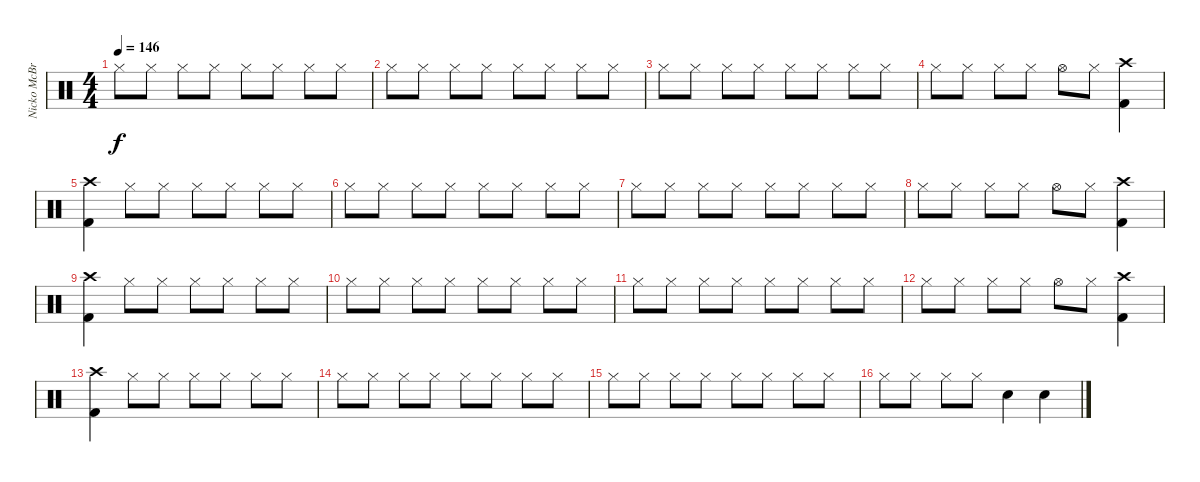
\track ("Nicko McBrain" "Nicko McBr") {instrument percussion}
\staff {score}
\articulation defaults
\ts (4 4)
\tempo 146
\clef neutral
\ks c "Hi-Hat (closed)".8{dy f} "Hi-Hat (closed)".8 "Hi-Hat (closed)".8 "Hi-Hat (closed)".8 "Hi-Hat (closed)".8 "Hi-Hat (closed)".8 "Hi-Hat (closed)".8 "Hi-Hat (closed)".8
|
"Hi-Hat (closed)".8 "Hi-Hat (closed)".8 "Hi-Hat (closed)".8 "Hi-Hat (closed)".8 "Hi-Hat (closed)".8 "Hi-Hat (closed)".8 "Hi-Hat (closed)".8 "Hi-Hat (closed)".8 |
"Hi-Hat (closed)".8 "Hi-Hat (closed)".8 "Hi-Hat (closed)".8 "Hi-Hat (closed)".8 "Hi-Hat (closed)".8 "Hi-Hat (closed)".8 "Hi-Hat (closed)".8 "Hi-Hat (closed)".8 |
"Hi-Hat (closed)".8 "Hi-Hat (closed)".8 "Hi-Hat (closed)".8 "Hi-Hat (closed)".8 "Hi-Hat (open)".8 "Hi-Hat (closed)".8 ("Crash high (hit)" "Kick (hit) 2").4 |
("Crash high (hit)" "Kick (hit) 2").4 "Hi-Hat (closed)".8 "Hi-Hat (closed)".8 "Hi-Hat (closed)".8 "Hi-Hat (closed)".8 "Hi-Hat (closed)".8 "Hi-Hat (closed)".8 |
"Hi-Hat (closed)".8 "Hi-Hat (closed)".8 "Hi-Hat (closed)".8 "Hi-Hat (closed)".8 "Hi-Hat (closed)".8 "Hi-Hat (closed)".8 "Hi-Hat (closed)".8 "Hi-Hat (closed)".8 |
"Hi-Hat (closed)".8 "Hi-Hat (closed)".8 "Hi-Hat (closed)".8 "Hi-Hat (closed)".8 "Hi-Hat (closed)".8 "Hi-Hat (closed)".8 "Hi-Hat (closed)".8 "Hi-Hat (closed)".8 |
"Hi-Hat (closed)".8 "Hi-Hat (closed)".8 "Hi-Hat (closed)".8 "Hi-Hat (closed)".8 "Hi-Hat (open)".8 "Hi-Hat (closed)".8 ("Crash high (hit)" "Kick (hit) 2").4 |
("Crash high (hit)" "Kick (hit) 2").4 "Hi-Hat (closed)".8 "Hi-Hat (closed)".8 "Hi-Hat (closed)".8 "Hi-Hat (closed)".8 "Hi-Hat (closed)".8 "Hi-Hat (closed)".8 |
"Hi-Hat (closed)".8 "Hi-Hat (closed)".8 "Hi-Hat (closed)".8 "Hi-Hat (closed)".8 "Hi-Hat (closed)".8 "Hi-Hat (closed)".8 "Hi-Hat (closed)".8 "Hi-Hat (closed)".8 |
"Hi-Hat (closed)".8 "Hi-Hat (closed)".8 "Hi-Hat (closed)".8 "Hi-Hat (closed)".8 "Hi-Hat (closed)".8 "Hi-Hat (closed)".8 "Hi-Hat (closed)".8 "Hi-Hat (closed)".8 |
"Hi-Hat (closed)".8 "Hi-Hat (closed)".8 "Hi-Hat (closed)".8 "Hi-Hat (closed)".8 "Hi-Hat (open)".8 "Hi-Hat (closed)".8 ("Crash high (hit)" "Kick (hit) 2").4 |
("Crash high (hit)" "Kick (hit) 2").4 "Hi-Hat (closed)".8 "Hi-Hat (closed)".8 "Hi-Hat (closed)".8 "Hi-Hat (closed)".8 "Hi-Hat (closed)".8 "Hi-Hat (closed)".8 |
"Hi-Hat (closed)".8 "Hi-Hat (closed)".8 "Hi-Hat (closed)".8 "Hi-Hat (closed)".8 "Hi-Hat (closed)".8 "Hi-Hat (closed)".8 "Hi-Hat (closed)".8 "Hi-Hat (closed)".8 |
"Hi-Hat (closed)".8 "Hi-Hat (closed)".8 "Hi-Hat (closed)".8 "Hi-Hat (closed)".8 "Hi-Hat (closed)".8 "Hi-Hat (closed)".8 "Hi-Hat (closed)".8 "Hi-Hat (closed)".8 |
"Hi-Hat (closed)".8 "Hi-Hat (closed)".8 "Hi-Hat (closed)".8 "Hi-Hat (closed)".8 "Snare (hit) 2".4 "Snare (hit) 2".4
